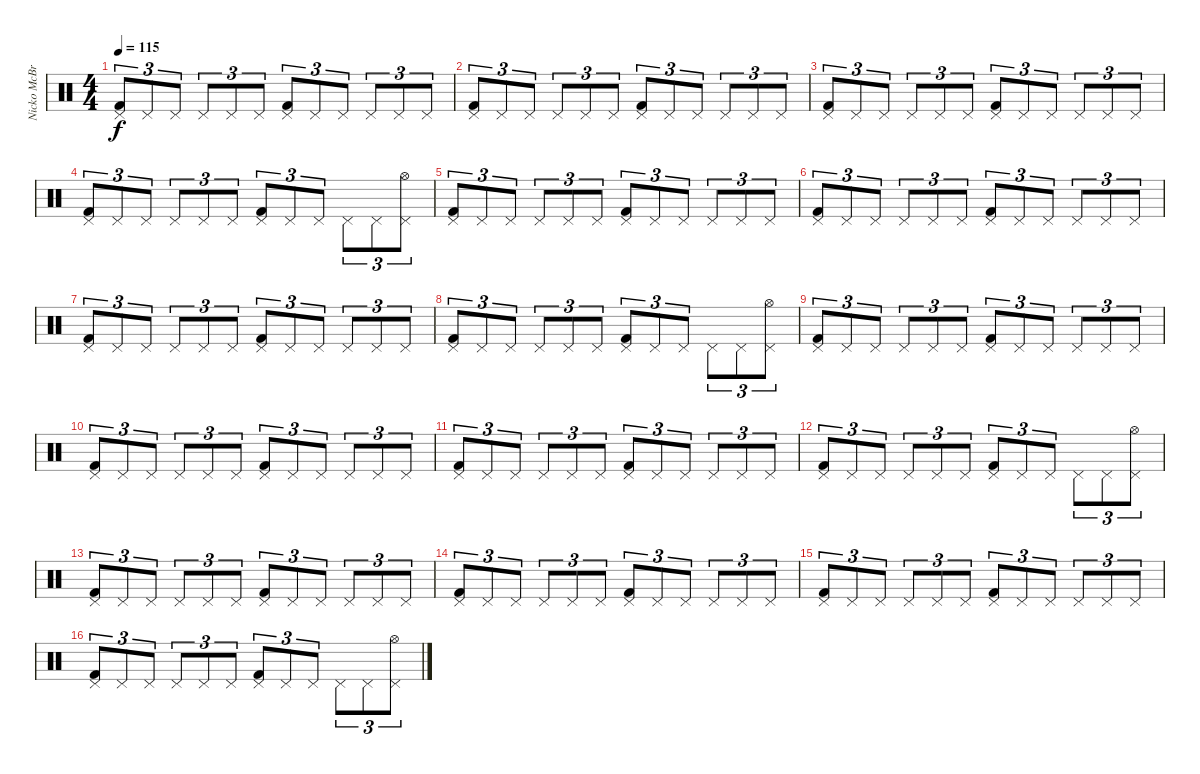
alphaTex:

\track ("Nicko McBrain" "Nicko McBr") {instrument percussion}
\staff {score}
\articulation defaults
\ts (4 4)
\tempo 115
\clef neutral
\ks c
("Pedal Hi-Hat (hit)" "Kick (hit) 2").8{tu (3 2) dy f} "Pedal Hi-Hat (hit)".8{tu (3 2)} "Pedal Hi-Hat (hit)".8{tu (3 2)} "Pedal Hi-Hat (hit)".8{tu (3 2)} "Pedal Hi-Hat (hit)".8{tu (3 2)} "Pedal Hi-Hat (hit)".8{tu (3 2)} ("Pedal Hi-Hat (hit)" "Kick (hit) 2").8{tu (3 2)} "Pedal Hi-Hat (hit)".8{tu (3 2)} "Pedal Hi-Hat (hit)".8{tu (3 2)} "Pedal Hi-Hat (hit)".8{tu (3 2)} "Pedal Hi-Hat (hit)".8{tu (3 2)} "Pedal Hi-Hat (hit)".8{tu (3 2)} |
("Pedal Hi-Hat (hit)" "Kick (hit) 2").8{tu (3 2)} "Pedal Hi-Hat (hit)".8{tu (3 2)} "Pedal Hi-Hat (hit)".8{tu (3 2)} "Pedal Hi-Hat (hit)".8{tu (3 2)} "Pedal Hi-Hat (hit)".8{tu (3 2)} "Pedal Hi-Hat (hit)".8{tu (3 2)} ("Pedal Hi-Hat (hit)" "Kick (hit) 2").8{tu (3 2)} "Pedal Hi-Hat (hit)".8{tu (3 2)} "Pedal Hi-Hat (hit)".8{tu (3 2)} "Pedal Hi-Hat (hit)".8{tu (3 2)} "Pedal Hi-Hat (hit)".8{tu (3 2)} "Pedal Hi-Hat (hit)".8{tu (3 2)} |
("Pedal Hi-Hat (hit)" "Kick (hit) 2").8{tu (3 2)} "Pedal Hi-Hat (hit)".8{tu (3 2)} "Pedal Hi-Hat (hit)".8{tu (3 2)} "Pedal Hi-Hat (hit)".8{tu (3 2)} "Pedal Hi-Hat (hit)".8{tu (3 2)} "Pedal Hi-Hat (hit)".8{tu (3 2)} ("Pedal Hi-Hat (hit)" "Kick (hit) 2").8{tu (3 2)} "Pedal Hi-Hat (hit)".8{tu (3 2)} "Pedal Hi-Hat (hit)".8{tu (3 2)} "Pedal Hi-Hat (hit)".8{tu (3 2)} "Pedal Hi-Hat (hit)".8{tu (3 2)} "Pedal Hi-Hat (hit)".8{tu (3 2)} |
("Pedal Hi-Hat (hit)" "Kick (hit) 2").8{tu (3 2)} "Pedal Hi-Hat (hit)".8{tu (3 2)} "Pedal Hi-Hat (hit)".8{tu (3 2)} "Pedal Hi-Hat (hit)".8{tu (3 2)} "Pedal Hi-Hat (hit)".8{tu (3 2)} "Pedal Hi-Hat (hit)".8{tu (3 2)} ("Pedal Hi-Hat (hit)" "Kick (hit) 2").8{tu (3 2)} "Pedal Hi-Hat (hit)".8{tu (3 2)} "Pedal Hi-Hat (hit)".8{tu (3 2)} "Pedal Hi-Hat (hit)".8{tu (3 2)} "Pedal Hi-Hat (hit)".8{tu (3 2)} ("Pedal Hi-Hat (hit)" "Hi-Hat (open)").8{tu (3 2)} |
("Pedal Hi-Hat (hit)" "Kick (hit) 2").8{tu (3 2)} "Pedal Hi-Hat (hit)".8{tu (3 2)} "Pedal Hi-Hat (hit)".8{tu (3 2)} "Pedal Hi-Hat (hit)".8{tu (3 2)} "Pedal Hi-Hat (hit)".8{tu (3 2)} "Pedal Hi-Hat (hit)".8{tu (3 2)} ("Pedal Hi-Hat (hit)" "Kick (hit) 2").8{tu (3 2)} "Pedal Hi-Hat (hit)".8{tu (3 2)} "Pedal Hi-Hat (hit)".8{tu (3 2)} "Pedal Hi-Hat (hit)".8{tu (3 2)} "Pedal Hi-Hat (hit)".8{tu (3 2)} "Pedal Hi-Hat (hit)".8{tu (3 2)} |
("Pedal Hi-Hat (hit)" "Kick (hit) 2").8{tu (3 2)} "Pedal Hi-Hat (hit)".8{tu (3 2)} "Pedal Hi-Hat (hit)".8{tu (3 2)} "Pedal Hi-Hat (hit)".8{tu (3 2)} "Pedal Hi-Hat (hit)".8{tu (3 2)} "Pedal Hi-Hat (hit)".8{tu (3 2)} ("Pedal Hi-Hat (hit)" "Kick (hit) 2").8{tu (3 2)} "Pedal Hi-Hat (hit)".8{tu (3 2)} "Pedal Hi-Hat (hit)".8{tu (3 2)} "Pedal Hi-Hat (hit)".8{tu (3 2)} "Pedal Hi-Hat (hit)".8{tu (3 2)} "Pedal Hi-Hat (hit)".8{tu (3 2)} |
("Pedal Hi-Hat (hit)" "Kick (hit) 2").8{tu (3 2)} "Pedal Hi-Hat (hit)".8{tu (3 2)} "Pedal Hi-Hat (hit)".8{tu (3 2)} "Pedal Hi-Hat (hit)".8{tu (3 2)} "Pedal Hi-Hat (hit)".8{tu (3 2)} "Pedal Hi-Hat (hit)".8{tu (3 2)} ("Pedal Hi-Hat (hit)" "Kick (hit) 2").8{tu (3 2)} "Pedal Hi-Hat (hit)".8{tu (3 2)} "Pedal Hi-Hat (hit)".8{tu (3 2)} "Pedal Hi-Hat (hit)".8{tu (3 2)} "Pedal Hi-Hat (hit)".8{tu (3 2)} "Pedal Hi-Hat (hit)".8{tu (3 2)} |
("Pedal Hi-Hat (hit)" "Kick (hit) 2").8{tu (3 2)} "Pedal Hi-Hat (hit)".8{tu (3 2)} "Pedal Hi-Hat (hit)".8{tu (3 2)} "Pedal Hi-Hat (hit)".8{tu (3 2)} "Pedal Hi-Hat (hit)".8{tu (3 2)} "Pedal Hi-Hat (hit)".8{tu (3 2)} ("Pedal Hi-Hat (hit)" "Kick (hit) 2").8{tu (3 2)} "Pedal Hi-Hat (hit)".8{tu (3 2)} "Pedal Hi-Hat (hit)".8{tu (3 2)} "Pedal Hi-Hat (hit)".8{tu (3 2)} "Pedal Hi-Hat (hit)".8{tu (3 2)} ("Pedal Hi-Hat (hit)" "Hi-Hat (open)").8{tu (3 2)} |
("Pedal Hi-Hat (hit)" "Kick (hit) 2").8{tu (3 2)} "Pedal Hi-Hat (hit)".8{tu (3 2)} "Pedal Hi-Hat (hit)".8{tu (3 2)} "Pedal Hi-Hat (hit)".8{tu (3 2)} "Pedal Hi-Hat (hit)".8{tu (3 2)} "Pedal Hi-Hat (hit)".8{tu (3 2)} ("Pedal Hi-Hat (hit)" "Kick (hit) 2").8{tu (3 2)} "Pedal Hi-Hat (hit)".8{tu (3 2)} "Pedal Hi-Hat (hit)".8{tu (3 2)} "Pedal Hi-Hat (hit)".8{tu (3 2)} "Pedal Hi-Hat (hit)".8{tu (3 2)} "Pedal Hi-Hat (hit)".8{tu (3 2)} |
("Pedal Hi-Hat (hit)" "Kick (hit) 2").8{tu (3 2)} "Pedal Hi-Hat (hit)".8{tu (3 2)} "Pedal Hi-Hat (hit)".8{tu (3 2)} "Pedal Hi-Hat (hit)".8{tu (3 2)} "Pedal Hi-Hat (hit)".8{tu (3 2)} "Pedal Hi-Hat (hit)".8{tu (3 2)} ("Pedal Hi-Hat (hit)" "Kick (hit) 2").8{tu (3 2)} "Pedal Hi-Hat (hit)".8{tu (3 2)} "Pedal Hi-Hat (hit)".8{tu (3 2)} "Pedal Hi-Hat (hit)".8{tu (3 2)} "Pedal Hi-Hat (hit)".8{tu (3 2)} "Pedal Hi-Hat (hit)".8{tu (3 2)} |
("Pedal Hi-Hat (hit)" "Kick (hit) 2").8{tu (3 2)} "Pedal Hi-Hat (hit)".8{tu (3 2)} "Pedal Hi-Hat (hit)".8{tu (3 2)} "Pedal Hi-Hat (hit)".8{tu (3 2)} "Pedal Hi-Hat (hit)".8{tu (3 2)} "Pedal Hi-Hat (hit)".8{tu (3 2)} ("Pedal Hi-Hat (hit)" "Kick (hit) 2").8{tu (3 2)} "Pedal Hi-Hat (hit)".8{tu (3 2)} "Pedal Hi-Hat (hit)".8{tu (3 2)} "Pedal Hi-Hat (hit)".8{tu (3 2)} "Pedal Hi-Hat (hit)".8{tu (3 2)} "Pedal Hi-Hat (hit)".8{tu (3 2)} |
("Pedal Hi-Hat (hit)" "Kick (hit) 2").8{tu (3 2)} "Pedal Hi-Hat (hit)".8{tu (3 2)} "Pedal Hi-Hat (hit)".8{tu (3 2)} "Pedal Hi-Hat (hit)".8{tu (3 2)} "Pedal Hi-Hat (hit)".8{tu (3 2)} "Pedal Hi-Hat (hit)".8{tu (3 2)} ("Pedal Hi-Hat (hit)" "Kick (hit) 2").8{tu (3 2)} "Pedal Hi-Hat (hit)".8{tu (3 2)} "Pedal Hi-Hat (hit)".8{tu (3 2)} "Pedal Hi-Hat (hit)".8{tu (3 2)} "Pedal Hi-Hat (hit)".8{tu (3 2)} ("Pedal Hi-Hat (hit)" "Hi-Hat (open)").8{tu (3 2)} |
("Pedal Hi-Hat (hit)" "Kick (hit) 2").8{tu (3 2)} "Pedal Hi-Hat (hit)".8{tu (3 2)} "Pedal Hi-Hat (hit)".8{tu (3 2)} "Pedal Hi-Hat (hit)".8{tu (3 2)} "Pedal Hi-Hat (hit)".8{tu (3 2)} "Pedal Hi-Hat (hit)".8{tu (3 2)} ("Pedal Hi-Hat (hit)" "Kick (hit) 2").8{tu (3 2)} "Pedal Hi-Hat (hit)".8{tu (3 2)} "Pedal Hi-Hat (hit)".8{tu (3 2)} "Pedal Hi-Hat (hit)".8{tu (3 2)} "Pedal Hi-Hat (hit)".8{tu (3 2)} "Pedal Hi-Hat (hit)".8{tu (3 2)} |
("Pedal Hi-Hat (hit)" "Kick (hit) 2").8{tu (3 2)} "Pedal Hi-Hat (hit)".8{tu (3 2)} "Pedal Hi-Hat (hit)".8{tu (3 2)} "Pedal Hi-Hat (hit)".8{tu (3 2)} "Pedal Hi-Hat (hit)".8{tu (3 2)} "Pedal Hi-Hat (hit)".8{tu (3 2)} ("Pedal Hi-Hat (hit)" "Kick (hit) 2").8{tu (3 2)} "Pedal Hi-Hat (hit)".8{tu (3 2)} "Pedal Hi-Hat (hit)".8{tu (3 2)} "Pedal Hi-Hat (hit)".8{tu (3 2)} "Pedal Hi-Hat (hit)".8{tu (3 2)} "Pedal Hi-Hat (hit)".8{tu (3 2)} |
("Pedal Hi-Hat (hit)" "Kick (hit) 2").8{tu (3 2)} "Pedal Hi-Hat (hit)".8{tu (3 2)} "Pedal Hi-Hat (hit)".8{tu (3 2)} "Pedal Hi-Hat (hit)".8{tu (3 2)} "Pedal Hi-Hat (hit)".8{tu (3 2)} "Pedal Hi-Hat (hit)".8{tu (3 2)} ("Pedal Hi-Hat (hit)" "Kick (hit) 2").8{tu (3 2)} "Pedal Hi-Hat (hit)".8{tu (3 2)} "Pedal Hi-Hat (hit)".8{tu (3 2)} "Pedal Hi-Hat (hit)".8{tu (3 2)} "Pedal Hi-Hat (hit)".8{tu (3 2)} "Pedal Hi-Hat (hit)".8{tu (3 2)} |
("Pedal Hi-Hat (hit)" "Kick (hit) 2").8{tu (3 2)} "Pedal Hi-Hat (hit)".8{tu (3 2)} "Pedal Hi-Hat (hit)".8{tu (3 2)} "Pedal Hi-Hat (hit)".8{tu (3 2)} "Pedal Hi-Hat (hit)".8{tu (3 2)} "Pedal Hi-Hat (hit)".8{tu (3 2)} ("Pedal Hi-Hat (hit)" "Kick (hit) 2").8{tu (3 2)} "Pedal Hi-Hat (hit)".8{tu (3 2)} "Pedal Hi-Hat (hit)".8{tu (3 2)} "Pedal Hi-Hat (hit)".8{tu (3 2)} "Pedal Hi-Hat (hit)".8{tu (3 2)} ("Pedal Hi-Hat (hit)" "Hi-Hat (open)").8{tu (3 2)}
